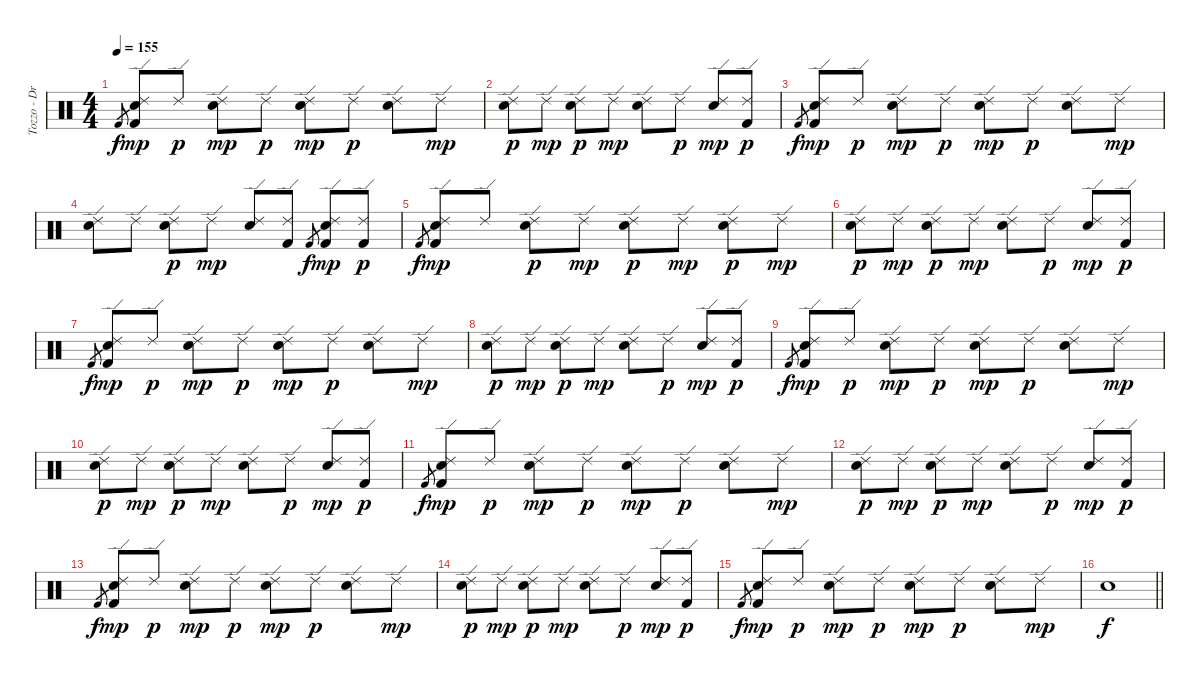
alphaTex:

\track ("Tozzo - Drums" "Tozzo - Dr") {instrument percussion}
\staff {score}
\articulation defaults
\ts (4 4)
\tempo 155
\clef neutral
\ks c "Kick (hit) 2".8{gr dy f}
("Ride (edge) 2" "Snare (hit) 2" "Kick (hit) 2").8{dy mp} "Ride (edge) 2".8{dy p} ("Ride (edge) 2" "Snare (hit) 2").8{dy mp} "Ride (edge) 2".8{dy p} ("Ride (edge) 2" "Snare (hit) 2").8{dy mp} "Ride (edge) 2".8{dy p} ("Ride (edge) 2" "Snare (hit) 2").8 "Ride (edge) 2".8{dy mp} |
("Ride (edge) 2" "Snare (hit) 2").8{dy p} "Ride (edge) 2".8{dy mp} ("Ride (edge) 2" "Snare (hit) 2").8{dy p} "Ride (edge) 2".8{dy mp} ("Ride (edge) 2" "Snare (hit) 2").8 "Ride (edge) 2".8{dy p} ("Ride (edge) 2" "Snare (hit) 2").8{dy mp} ("Ride (edge) 2" "Kick (hit) 2").8{dy p} |
"Kick (hit) 2".8{gr dy f} ("Ride (edge) 2" "Snare (hit) 2" "Kick (hit) 2").8{dy mp} "Ride (edge) 2".8{dy p} ("Ride (edge) 2" "Snare (hit) 2").8{dy mp} "Ride (edge) 2".8{dy p} ("Ride (edge) 2" "Snare (hit) 2").8{dy mp} "Ride (edge) 2".8{dy p} ("Ride (edge) 2" "Snare (hit) 2").8 "Ride (edge) 2".8{dy mp} |
("Ride (edge) 2" "Snare (hit) 2").8 "Ride (edge) 2".8 ("Ride (edge) 2" "Snare (hit) 2").8{dy p} "Ride (edge) 2".8{dy mp} ("Ride (edge) 2" "Snare (hit) 2").8 ("Ride (edge) 2" "Kick (hit) 2").8 "Kick (hit) 2".8{gr dy f} ("Ride (edge) 2" "Snare (hit) 2" "Kick (hit) 2").8{dy mp} ("Ride (edge) 2" "Kick (hit) 2").8{dy p} |
"Kick (hit) 2".8{gr dy f} ("Ride (edge) 2" "Snare (hit) 2" "Kick (hit) 2").8{dy mp} "Ride (edge) 2".8 ("Ride (edge) 2" "Snare (hit) 2").8{dy p} "Ride (edge) 2".8{dy mp} ("Ride (edge) 2" "Snare (hit) 2").8{dy p} "Ride (edge) 2".8{dy mp} ("Ride (edge) 2" "Snare (hit) 2").8{dy p} "Ride (edge) 2".8{dy mp} |
("Ride (edge) 2" "Snare (hit) 2").8{dy p} "Ride (edge) 2".8{dy mp} ("Ride (edge) 2" "Snare (hit) 2").8{dy p} "Ride (edge) 2".8{dy mp} ("Ride (edge) 2" "Snare (hit) 2").8 "Ride (edge) 2".8{dy p} ("Ride (edge) 2" "Snare (hit) 2").8{dy mp} ("Ride (edge) 2" "Kick (hit) 2").8{dy p} |
"Kick (hit) 2".8{gr dy f} ("Ride (edge) 2" "Snare (hit) 2" "Kick (hit) 2").8{dy mp} "Ride (edge) 2".8{dy p} ("Ride (edge) 2" "Snare (hit) 2").8{dy mp} "Ride (edge) 2".8{dy p} ("Ride (edge) 2" "Snare (hit) 2").8{dy mp} "Ride (edge) 2".8{dy p} ("Ride (edge) 2" "Snare (hit) 2").8 "Ride (edge) 2".8{dy mp} |
("Ride (edge) 2" "Snare (hit) 2").8{dy p} "Ride (edge) 2".8{dy mp} ("Ride (edge) 2" "Snare (hit) 2").8{dy p} "Ride (edge) 2".8{dy mp} ("Ride (edge) 2" "Snare (hit) 2").8 "Ride (edge) 2".8{dy p} ("Ride (edge) 2" "Snare (hit) 2").8{dy mp} ("Ride (edge) 2" "Kick (hit) 2").8{dy p} |
"Kick (hit) 2".8{gr dy f} ("Ride (edge) 2" "Snare (hit) 2" "Kick (hit) 2").8{dy mp} "Ride (edge) 2".8{dy p} ("Ride (edge) 2" "Snare (hit) 2").8{dy mp} "Ride (edge) 2".8{dy p} ("Ride (edge) 2" "Snare (hit) 2").8{dy mp} "Ride (edge) 2".8{dy p} ("Ride (edge) 2" "Snare (hit) 2").8 "Ride (edge) 2".8{dy mp} |
("Ride (edge) 2" "Snare (hit) 2").8{dy p} "Ride (edge) 2".8{dy mp} ("Ride (edge) 2" "Snare (hit) 2").8{dy p} "Ride (edge) 2".8{dy mp} ("Ride (edge) 2" "Snare (hit) 2").8 "Ride (edge) 2".8{dy p} ("Ride (edge) 2" "Snare (hit) 2").8{dy mp} ("Ride (edge) 2" "Kick (hit) 2").8{dy p} |
"Kick (hit) 2".8{gr dy f} ("Ride (edge) 2" "Snare (hit) 2" "Kick (hit) 2").8{dy mp} "Ride (edge) 2".8{dy p} ("Ride (edge) 2" "Snare (hit) 2").8{dy mp} "Ride (edge) 2".8{dy p} ("Ride (edge) 2" "Snare (hit) 2").8{dy mp} "Ride (edge) 2".8{dy p} ("Ride (edge) 2" "Snare (hit) 2").8 "Ride (edge) 2".8{dy mp} |
("Ride (edge) 2" "Snare (hit) 2").8{dy p} "Ride (edge) 2".8{dy mp} ("Ride (edge) 2" "Snare (hit) 2").8{dy p} "Ride (edge) 2".8{dy mp} ("Ride (edge) 2" "Snare (hit) 2").8 "Ride (edge) 2".8{dy p} ("Ride (edge) 2" "Snare (hit) 2").8{dy mp} ("Ride (edge) 2" "Kick (hit) 2").8{dy p} |
"Kick (hit) 2".8{gr dy f} ("Ride (edge) 2" "Snare (hit) 2" "Kick (hit) 2").8{dy mp} "Ride (edge) 2".8{dy p} ("Ride (edge) 2" "Snare (hit) 2").8{dy mp} "Ride (edge) 2".8{dy p} ("Ride (edge) 2" "Snare (hit) 2").8{dy mp} "Ride (edge) 2".8{dy p} ("Ride (edge) 2" "Snare (hit) 2").8 "Ride (edge) 2".8{dy mp} |
("Ride (edge) 2" "Snare (hit) 2").8{dy p} "Ride (edge) 2".8{dy mp} ("Ride (edge) 2" "Snare (hit) 2").8{dy p} "Ride (edge) 2".8{dy mp} ("Ride (edge) 2" "Snare (hit) 2").8 "Ride (edge) 2".8{dy p} ("Ride (edge) 2" "Snare (hit) 2").8{dy mp} ("Ride (edge) 2" "Kick (hit) 2").8{dy p} |
"Kick (hit) 2".8{gr dy f} ("Ride (edge) 2" "Snare (hit) 2" "Kick (hit) 2").8{dy mp} "Ride (edge) 2".8{dy p} ("Ride (edge) 2" "Snare (hit) 2").8{dy mp} "Ride (edge) 2".8{dy p} ("Ride (edge) 2" "Snare (hit) 2").8{dy mp} "Ride (edge) 2".8{dy p} ("Ride (edge) 2" "Snare (hit) 2").8 "Ride (edge) 2".8{dy mp} |
\barLineRight lightlight "Snare (hit) 2".1{dy f}
